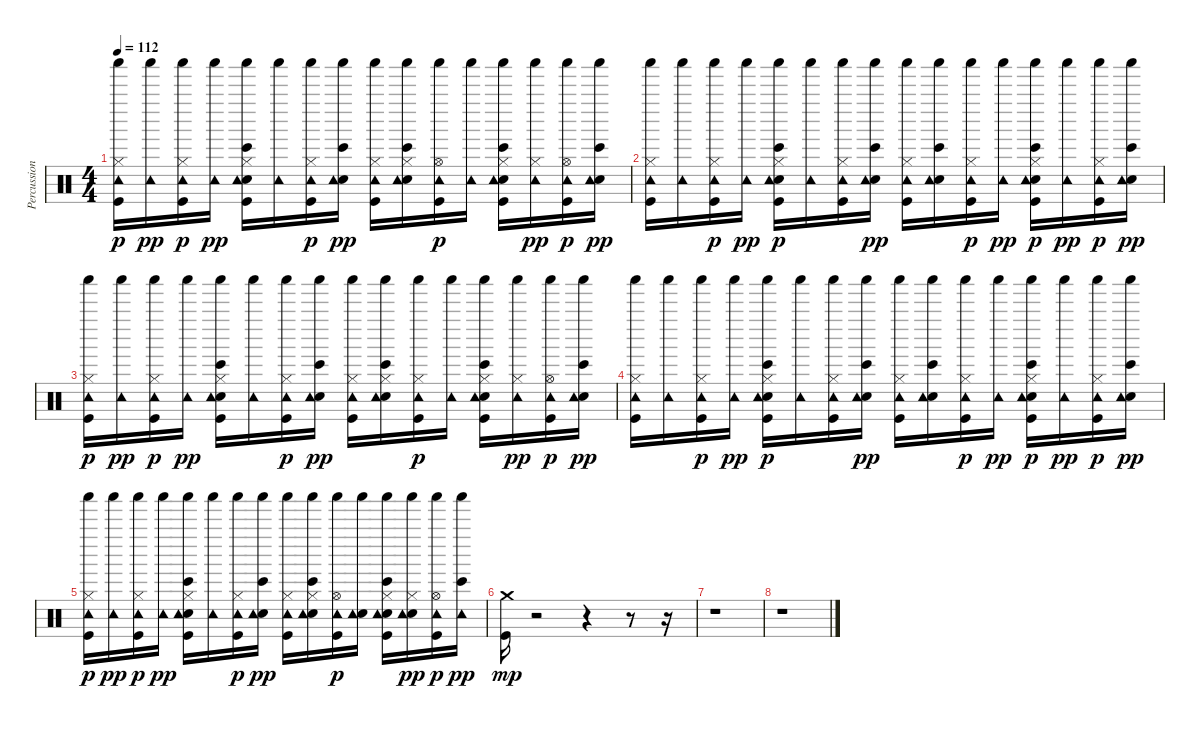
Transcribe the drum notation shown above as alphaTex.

\track ("Percussioni" "Percussion") {instrument percussion}
\staff {score}
\articulation defaults
\ts (4 4)
\tempo 112
\clef neutral
\ks c
("Shaker (hit)" "Kick (hit)" "Hi-Hat (closed)" "Tambourine (hit)").16{dy p} ("Tambourine (hit)" "Shaker (hit)").16{dy pp} ("Kick (hit)" "Hi-Hat (closed)" "Shaker (hit)" "Tambourine (hit)").16{dy p} ("Tambourine (hit)" "Shaker (hit)").16{dy pp} ("Bongo High (hit)" "Kick (hit)" "Electric Snare (hit)" "Hi-Hat (closed)" "Tambourine (hit)" "Shaker (hit)").16 ("Tambourine (hit)" "Shaker (hit)").16 ("Kick (hit)" "Hi-Hat (closed)" "Shaker (hit)" "Tambourine (hit)").16{dy p} ("Bongo High (hit)" "Electric Snare (hit)" "Tambourine (hit)" "Shaker (hit)").16{dy pp} ("Kick (hit)" "Hi-Hat (closed)" "Tambourine (hit)" "Shaker (hit)").16 ("Bongo High (hit)" "Electric Snare (hit)" "Hi-Hat (closed)" "Tambourine (hit)" "Shaker (hit)").16 ("Kick (hit)" "Hi-Hat (open)" "Shaker (hit)" "Tambourine (hit)").16{dy p} ("Shaker (hit)" "Tambourine (hit)").16 ("Bongo High (hit)" "Kick (hit)" "Electric Snare (hit)" "Hi-Hat (closed)" "Shaker (hit)" "Tambourine (hit)").16 ("Hi-Hat (closed)" "Tambourine (hit)" "Shaker (hit)").16{dy pp} ("Kick (hit)" "Hi-Hat (open)" "Shaker (hit)" "Tambourine (hit)").16{dy p} ("Bongo High (hit)" "Electric Snare (hit)" "Tambourine (hit)" "Shaker (hit)").16{dy pp} |
("Kick (hit)" "Hi-Hat (closed)" "Tambourine (hit)" "Shaker (hit)").16 ("Tambourine (hit)" "Shaker (hit)").16 ("Kick (hit)" "Hi-Hat (closed)" "Shaker (hit)" "Tambourine (hit)").16{dy p} ("Tambourine (hit)" "Shaker (hit)").16{dy pp} ("Bongo High (hit)" "Kick (hit)" "Electric Snare (hit)" "Hi-Hat (closed)" "Shaker (hit)" "Tambourine (hit)").16{dy p} ("Shaker (hit)" "Tambourine (hit)").16 ("Kick (hit)" "Hi-Hat (closed)" "Shaker (hit)" "Tambourine (hit)").16 ("Bongo High (hit)" "Electric Snare (hit)" "Tambourine (hit)" "Shaker (hit)").16{dy pp} ("Kick (hit)" "Hi-Hat (closed)" "Tambourine (hit)" "Shaker (hit)").16 ("Bongo High (hit)" "Electric Snare (hit)" "Tambourine (hit)" "Shaker (hit)").16 ("Kick (hit)" "Hi-Hat (closed)" "Shaker (hit)" "Tambourine (hit)").16{dy p} ("Tambourine (hit)" "Shaker (hit)").16{dy pp} ("Bongo High (hit)" "Kick (hit)" "Electric Snare (hit)" "Hi-Hat (closed)" "Shaker (hit)" "Tambourine (hit)").16{dy p} ("Tambourine (hit)" "Shaker (hit)").16{dy pp} ("Kick (hit)" "Hi-Hat (closed)" "Shaker (hit)" "Tambourine (hit)").16{dy p} ("Bongo High (hit)" "Electric Snare (hit)" "Tambourine (hit)" "Shaker (hit)").16{dy pp} |
("Shaker (hit)" "Kick (hit)" "Hi-Hat (closed)" "Tambourine (hit)").16{dy p} ("Tambourine (hit)" "Shaker (hit)").16{dy pp} ("Kick (hit)" "Hi-Hat (closed)" "Shaker (hit)" "Tambourine (hit)").16{dy p} ("Tambourine (hit)" "Shaker (hit)").16{dy pp} ("Bongo High (hit)" "Kick (hit)" "Electric Snare (hit)" "Hi-Hat (closed)" "Tambourine (hit)" "Shaker (hit)").16 ("Tambourine (hit)" "Shaker (hit)").16 ("Kick (hit)" "Hi-Hat (closed)" "Shaker (hit)" "Tambourine (hit)").16{dy p} ("Bongo High (hit)" "Electric Snare (hit)" "Tambourine (hit)" "Shaker (hit)").16{dy pp} ("Kick (hit)" "Hi-Hat (closed)" "Tambourine (hit)" "Shaker (hit)").16 ("Bongo High (hit)" "Electric Snare (hit)" "Hi-Hat (closed)" "Tambourine (hit)" "Shaker (hit)").16 ("Kick (hit)" "Hi-Hat (closed)" "Shaker (hit)" "Tambourine (hit)").16{dy p} ("Shaker (hit)" "Tambourine (hit)").16 ("Bongo High (hit)" "Kick (hit)" "Electric Snare (hit)" "Hi-Hat (closed)" "Shaker (hit)" "Tambourine (hit)").16 ("Hi-Hat (closed)" "Tambourine (hit)" "Shaker (hit)").16{dy pp} ("Kick (hit)" "Hi-Hat (open)" "Shaker (hit)" "Tambourine (hit)").16{dy p} ("Bongo High (hit)" "Electric Snare (hit)" "Tambourine (hit)" "Shaker (hit)").16{dy pp} |
("Kick (hit)" "Hi-Hat (closed)" "Tambourine (hit)" "Shaker (hit)").16 ("Tambourine (hit)" "Shaker (hit)").16 ("Kick (hit)" "Hi-Hat (closed)" "Shaker (hit)" "Tambourine (hit)").16{dy p} ("Tambourine (hit)" "Shaker (hit)").16{dy pp} ("Bongo High (hit)" "Kick (hit)" "Electric Snare (hit)" "Hi-Hat (closed)" "Shaker (hit)" "Tambourine (hit)").16{dy p} ("Shaker (hit)" "Tambourine (hit)").16 ("Kick (hit)" "Hi-Hat (closed)" "Shaker (hit)" "Tambourine (hit)").16 ("Bongo High (hit)" "Electric Snare (hit)" "Tambourine (hit)" "Shaker (hit)").16{dy pp} ("Kick (hit)" "Hi-Hat (closed)" "Tambourine (hit)" "Shaker (hit)").16 ("Bongo High (hit)" "Electric Snare (hit)" "Tambourine (hit)" "Shaker (hit)").16 ("Kick (hit)" "Hi-Hat (closed)" "Shaker (hit)" "Tambourine (hit)").16{dy p} ("Tambourine (hit)" "Shaker (hit)").16{dy pp} ("Bongo High (hit)" "Kick (hit)" "Electric Snare (hit)" "Hi-Hat (closed)" "Shaker (hit)" "Tambourine (hit)").16{dy p} ("Tambourine (hit)" "Shaker (hit)").16{dy pp} ("Kick (hit)" "Hi-Hat (closed)" "Shaker (hit)" "Tambourine (hit)").16{dy p} ("Bongo High (hit)" "Electric Snare (hit)" "Tambourine (hit)" "Shaker (hit)").16{dy pp} |
("Shaker (hit)" "Kick (hit)" "Hi-Hat (closed)" "Tambourine (hit)").16{dy p} ("Tambourine (hit)" "Shaker (hit)").16{dy pp} ("Kick (hit)" "Hi-Hat (closed)" "Shaker (hit)" "Tambourine (hit)").16{dy p} ("Tambourine (hit)" "Shaker (hit)").16{dy pp} ("Bongo High (hit)" "Kick (hit)" "Electric Snare (hit)" "Hi-Hat (closed)" "Tambourine (hit)" "Shaker (hit)").16 ("Tambourine (hit)" "Shaker (hit)").16 ("Kick (hit)" "Hi-Hat (closed)" "Shaker (hit)" "Tambourine (hit)").16{dy p} ("Bongo High (hit)" "Electric Snare (hit)" "Tambourine (hit)" "Shaker (hit)").16{dy pp} ("Kick (hit)" "Hi-Hat (closed)" "Tambourine (hit)" "Shaker (hit)").16 ("Bongo High (hit)" "Electric Snare (hit)" "Hi-Hat (closed)" "Tambourine (hit)" "Shaker (hit)").16 ("Kick (hit)" "Hi-Hat (open)" "Shaker (hit)" "Tambourine (hit)").16{dy p} ("Shaker (hit)" "Electric Snare (hit)" "Tambourine (hit)").16 ("Bongo High (hit)" "Kick (hit)" "Electric Snare (hit)" "Hi-Hat (closed)" "Shaker (hit)" "Tambourine (hit)").16 ("Electric Snare (hit)" "Hi-Hat (closed)" "Tambourine (hit)" "Shaker (hit)").16{dy pp} ("Kick (hit)" "Hi-Hat (open)" "Shaker (hit)" "Tambourine (hit)").16{dy p} ("Bongo High (hit)" "Tambourine (hit)" "Shaker (hit)").16{dy pp} |
("Kick (hit)" "Crash medium (hit)").16{dy mp} r.2 r.4 r.8 r.16 |
r.1 |
r.1
